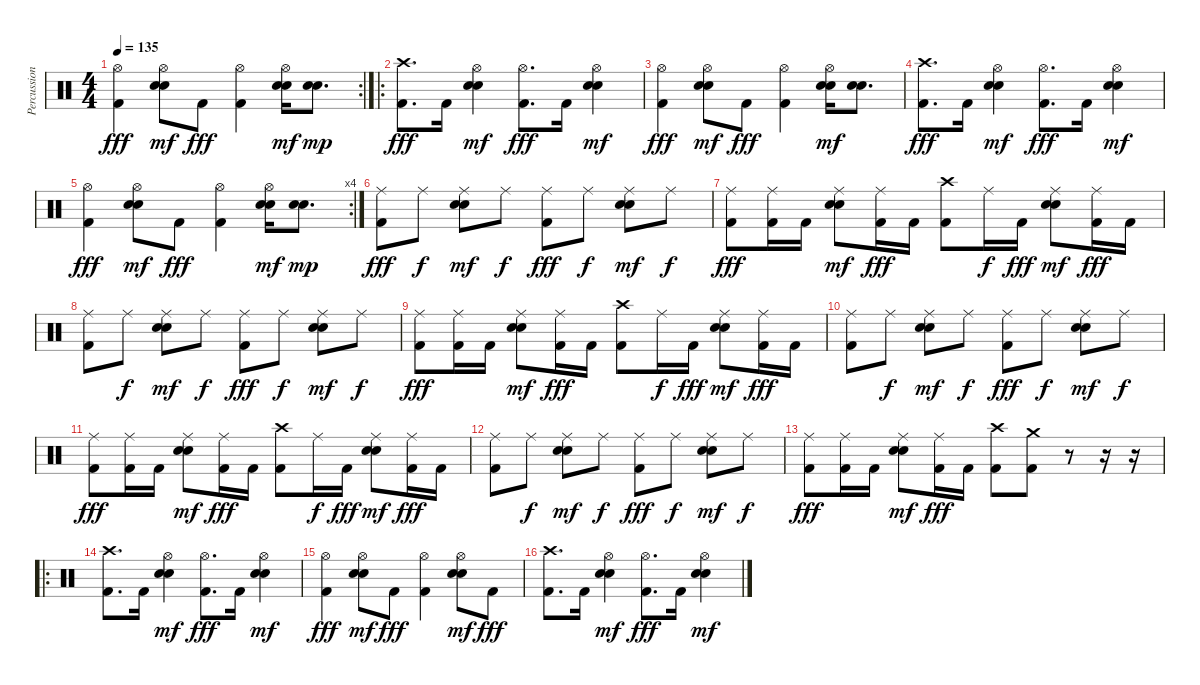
\track ("Percussion" "Percussion") {instrument percussion}
\staff {score}
\articulation defaults
\rc 2
\ts (4 4)
\tempo 135
\clef neutral
\ks c
("Hi-Hat (open)" "Kick (hit) 2").4{dy fff} ("Hi-Hat (open)" "Electric Snare (hit)" "Snare (hit) 2").8{dy mf} "Kick (hit) 2".8{dy fff} ("Hi-Hat (open)" "Kick (hit) 2").4 ("Hi-Hat (open)" "Electric Snare (hit)" "Snare (hit) 2").16{dy mf} ("Electric Snare (hit)" "Snare (hit) 2").8{d dy mp} |
\ro
("Crash high (hit)" "Kick (hit) 2").8{d dy fff} "Kick (hit) 2".16 ("Hi-Hat (open)" "Electric Snare (hit)" "Snare (hit) 2").4{dy mf} ("Hi-Hat (open)" "Kick (hit) 2").8{d dy fff} "Kick (hit) 2".16 ("Hi-Hat (open)" "Electric Snare (hit)" "Snare (hit) 2").4{dy mf} |
("Hi-Hat (open)" "Kick (hit) 2").4{dy fff} ("Hi-Hat (open)" "Electric Snare (hit)" "Snare (hit) 2").8{dy mf} "Kick (hit) 2".8{dy fff} ("Hi-Hat (open)" "Kick (hit) 2").4 ("Hi-Hat (open)" "Electric Snare (hit)" "Snare (hit) 2").16{dy mf} ("Electric Snare (hit)" "Snare (hit) 2").8{d} |
("Crash high (hit)" "Kick (hit) 2").8{d dy fff} "Kick (hit) 2".16 ("Hi-Hat (open)" "Electric Snare (hit)" "Snare (hit) 2").4{dy mf} ("Hi-Hat (open)" "Kick (hit) 2").8{d dy fff} "Kick (hit) 2".16 ("Hi-Hat (open)" "Electric Snare (hit)" "Snare (hit) 2").4{dy mf} |
\rc 4
("Hi-Hat (open)" "Kick (hit) 2").4{dy fff} ("Hi-Hat (open)" "Electric Snare (hit)" "Snare (hit) 2").8{dy mf} "Kick (hit) 2".8{dy fff} ("Hi-Hat (open)" "Kick (hit) 2").4 ("Hi-Hat (open)" "Electric Snare (hit)" "Snare (hit) 2").16{dy mf} ("Electric Snare (hit)" "Snare (hit) 2").8{d dy mp} |
("Ride (middle)" "Kick (hit) 2").8{dy fff} "Ride (middle)".8{dy f} ("Ride (middle)" "Electric Snare (hit)" "Snare (hit) 2").8{dy mf} "Ride (middle)".8{dy f} ("Ride (middle)" "Kick (hit) 2").8{dy fff} "Ride (middle)".8{dy f} ("Ride (middle)" "Electric Snare (hit)" "Snare (hit) 2").8{dy mf} "Ride (middle)".8{dy f} |
("Ride (middle)" "Kick (hit) 2").8{dy fff} ("Ride (middle)" "Kick (hit) 2").16 "Kick (hit) 2".16 ("Ride (middle)" "Electric Snare (hit)" "Snare (hit) 2").8{dy mf} ("Ride (middle)" "Kick (hit) 2").16{dy fff} "Kick (hit) 2".16 ("Crash high (hit)" "Kick (hit) 2").8 "Ride (middle)".16{dy f} "Kick (hit) 2".16{dy fff} ("Ride (middle)" "Electric Snare (hit)" "Snare (hit) 2").8{dy mf} ("Ride (middle)" "Kick (hit) 2").16{dy fff} "Kick (hit) 2".16 |
("Ride (middle)" "Kick (hit) 2").8 "Ride (middle)".8{dy f} ("Ride (middle)" "Electric Snare (hit)" "Snare (hit) 2").8{dy mf} "Ride (middle)".8{dy f} ("Ride (middle)" "Kick (hit) 2").8{dy fff} "Ride (middle)".8{dy f} ("Ride (middle)" "Electric Snare (hit)" "Snare (hit) 2").8{dy mf} "Ride (middle)".8{dy f} |
("Ride (middle)" "Kick (hit) 2").8{dy fff} ("Ride (middle)" "Kick (hit) 2").16 "Kick (hit) 2".16 ("Ride (middle)" "Electric Snare (hit)" "Snare (hit) 2").8{dy mf} ("Ride (middle)" "Kick (hit) 2").16{dy fff} "Kick (hit) 2".16 ("Crash high (hit)" "Kick (hit) 2").8 "Ride (middle)".16{dy f} "Kick (hit) 2".16{dy fff} ("Ride (middle)" "Electric Snare (hit)" "Snare (hit) 2").8{dy mf} ("Ride (middle)" "Kick (hit) 2").16{dy fff} "Kick (hit) 2".16 |
("Ride (middle)" "Kick (hit) 2").8 "Ride (middle)".8{dy f} ("Ride (middle)" "Electric Snare (hit)" "Snare (hit) 2").8{dy mf} "Ride (middle)".8{dy f} ("Ride (middle)" "Kick (hit) 2").8{dy fff} "Ride (middle)".8{dy f} ("Ride (middle)" "Electric Snare (hit)" "Snare (hit) 2").8{dy mf} "Ride (middle)".8{dy f} |
("Ride (middle)" "Kick (hit) 2").8{dy fff} ("Ride (middle)" "Kick (hit) 2").16 "Kick (hit) 2".16 ("Ride (middle)" "Electric Snare (hit)" "Snare (hit) 2").8{dy mf} ("Ride (middle)" "Kick (hit) 2").16{dy fff} "Kick (hit) 2".16 ("Crash high (hit)" "Kick (hit) 2").8 "Ride (middle)".16{dy f} "Kick (hit) 2".16{dy fff} ("Ride (middle)" "Electric Snare (hit)" "Snare (hit) 2").8{dy mf} ("Ride (middle)" "Kick (hit) 2").16{dy fff} "Kick (hit) 2".16 |
("Ride (middle)" "Kick (hit) 2").8 "Ride (middle)".8{dy f} ("Ride (middle)" "Electric Snare (hit)" "Snare (hit) 2").8{dy mf} "Ride (middle)".8{dy f} ("Ride (middle)" "Kick (hit) 2").8{dy fff} "Ride (middle)".8{dy f} ("Ride (middle)" "Electric Snare (hit)" "Snare (hit) 2").8{dy mf} "Ride (middle)".8{dy f} |
("Ride (middle)" "Kick (hit) 2").8{dy fff} ("Ride (middle)" "Kick (hit) 2").16 "Kick (hit) 2".16 ("Ride (middle)" "Electric Snare (hit)" "Snare (hit) 2").8{dy mf} ("Ride (middle)" "Kick (hit) 2").16{dy fff} "Kick (hit) 2".16 ("Crash high (hit)" "Kick (hit) 2").8 ("Crash medium (hit)" "Kick (hit) 2").8 r.8 r.16 r.16 |
\ro
("Crash high (hit)" "Kick (hit) 2").8{d} "Kick (hit) 2".16 ("Hi-Hat (open)" "Electric Snare (hit)" "Snare (hit) 2").4{dy mf} ("Hi-Hat (open)" "Kick (hit) 2").8{d dy fff} "Kick (hit) 2".16 ("Hi-Hat (open)" "Electric Snare (hit)" "Snare (hit) 2").4{dy mf} |
("Hi-Hat (open)" "Kick (hit) 2").4{dy fff} ("Hi-Hat (open)" "Electric Snare (hit)" "Snare (hit) 2").8{dy mf} "Kick (hit) 2".8{dy fff} ("Hi-Hat (open)" "Kick (hit) 2").4 ("Hi-Hat (open)" "Electric Snare (hit)" "Snare (hit) 2").8{dy mf} "Kick (hit) 2".8{dy fff} |
("Crash high (hit)" "Kick (hit) 2").8{d} "Kick (hit) 2".16 ("Hi-Hat (open)" "Electric Snare (hit)" "Snare (hit) 2").4{dy mf} ("Hi-Hat (open)" "Kick (hit) 2").8{d dy fff} "Kick (hit) 2".16 ("Hi-Hat (open)" "Electric Snare (hit)" "Snare (hit) 2").4{dy mf}
